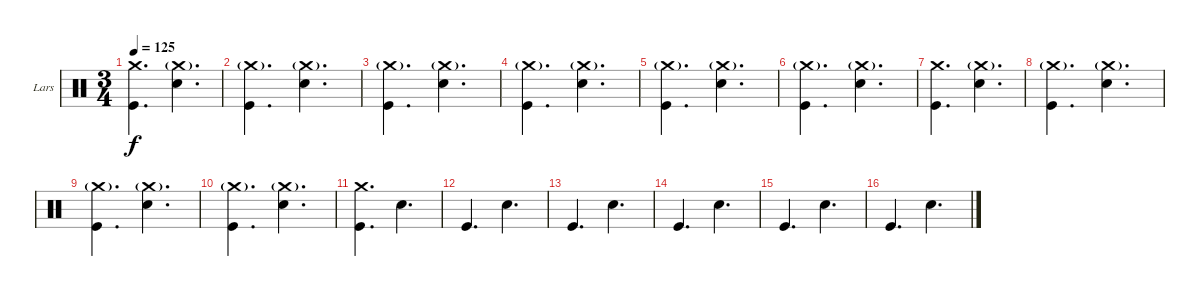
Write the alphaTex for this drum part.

\bracketExtendMode groupsimilarinstruments
\firstSystemTrackNameOrientation horizontal
\otherSystemsTrackNameOrientation horizontal
\track ("Drumkit" "Lars") {instrument percussion}
\staff {score}
\articulation defaults
\ts (3 4)
\tempo 125
\clef neutral
\ks c
("Crash medium (hit)" "Kick (hit)").4{d dy f} ("Crash medium (hit)"{g} "Snare (hit) 2").4{d} |
("Crash medium (hit)"{g} "Kick (hit)").4{d} ("Crash medium (hit)"{g} "Snare (hit) 2").4{d} |
("Crash medium (hit)"{g} "Kick (hit)").4{d} ("Crash medium (hit)"{g} "Snare (hit) 2").4{d} |
("Crash medium (hit)"{g} "Kick (hit)").4{d} ("Crash medium (hit)"{g} "Snare (hit) 2").4{d} |
("Crash medium (hit)"{g} "Kick (hit)").4{d} ("Crash medium (hit)"{g} "Snare (hit) 2").4{d} |
("Crash medium (hit)"{g} "Kick (hit)").4{d} ("Crash medium (hit)"{g} "Snare (hit) 2").4{d} |
("Crash medium (hit)" "Kick (hit)").4{d} ("Crash medium (hit)"{g} "Snare (hit) 2").4{d} |
("Crash medium (hit)"{g} "Kick (hit)").4{d} ("Crash medium (hit)"{g} "Snare (hit) 2").4{d} |
("Crash medium (hit)"{g} "Kick (hit)").4{d} ("Crash medium (hit)"{g} "Snare (hit) 2").4{d} |
("Crash medium (hit)"{g} "Kick (hit)").4{d} ("Crash medium (hit)"{g} "Snare (hit) 2").4{d} |
("Crash medium (hit)" "Kick (hit)").4{d} "Snare (hit) 2".4{d} |
"Kick (hit)".4{d} "Snare (hit) 2".4{d} |
"Kick (hit)".4{d} "Snare (hit) 2".4{d} |
"Kick (hit)".4{d} "Snare (hit) 2".4{d} |
"Kick (hit)".4{d} "Snare (hit) 2".4{d} |
"Kick (hit)".4{d} "Snare (hit) 2".4{d}
